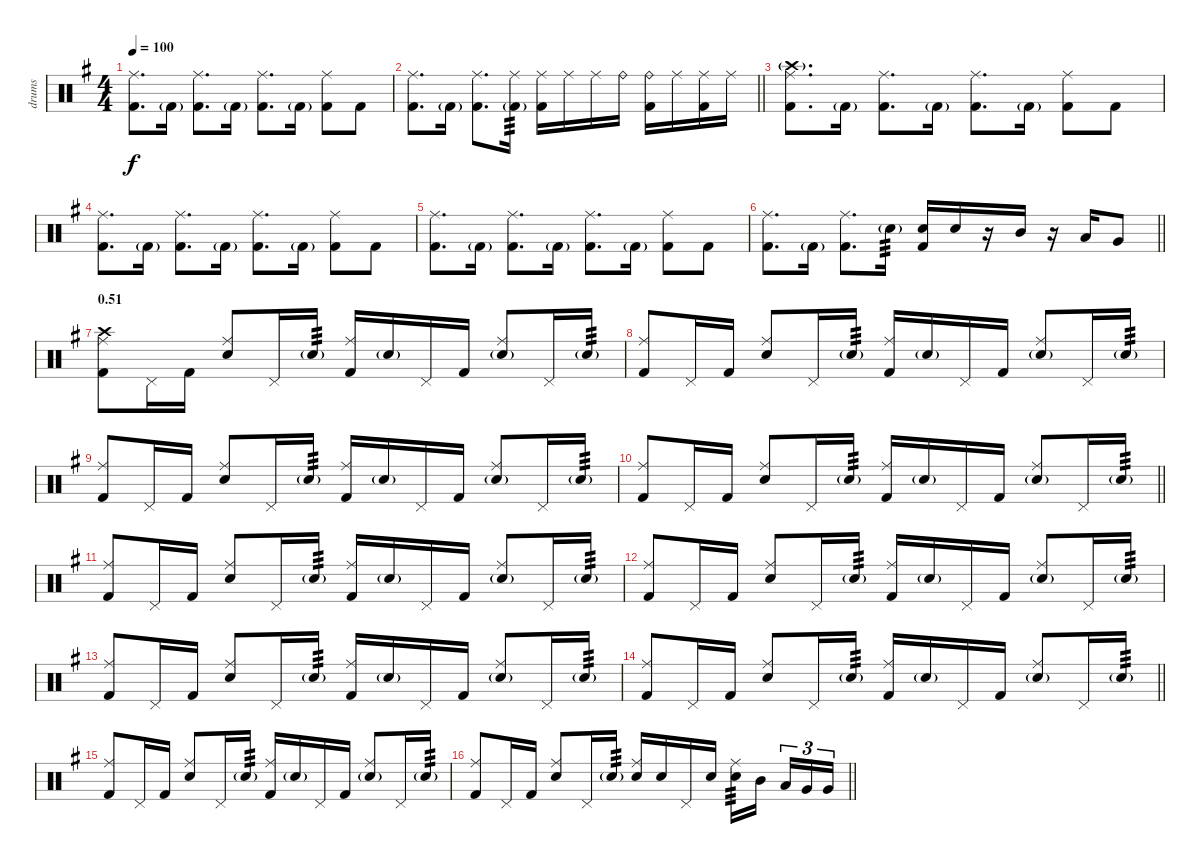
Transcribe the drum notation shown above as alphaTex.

\track ("drums" "drums") {instrument percussion}
\staff {score}
\articulation defaults
\ts (4 4)
\tempo 100
\clef neutral
\ks g
("Ride (middle)" "Kick (hit) 2").8{d dy f} "Kick (hit) 2"{g}.16 ("Ride (middle)" "Kick (hit) 2").8{d} "Kick (hit) 2"{g}.16 ("Ride (middle)" "Kick (hit) 2").8{d} "Kick (hit) 2"{g}.16 ("Ride (middle)" "Kick (hit) 2").8 "Kick (hit) 2".8 |
\barLineRight lightlight
("Ride (middle)" "Kick (hit) 2").8{d} "Kick (hit) 2"{g}.16 ("Ride (middle)" "Kick (hit) 2").8{d} ("Ride (middle)" "Kick (hit) 2"{g}).16{tp 3} ("Ride (middle)" "Kick (hit) 2").16 "Ride (middle)".16 "Ride (middle)".16 "Ride (bell)".16 ("Ride (bell)" "Kick (hit) 2").16 "Ride (middle)".16 ("Ride (middle)" "Kick (hit) 2").16 "Ride (middle)".16 |
("Ride (middle)" "Crash high (hit)"{g} "Kick (hit) 2").8{d} "Kick (hit) 2"{g}.16 ("Ride (middle)" "Kick (hit) 2").8{d} "Kick (hit) 2"{g}.16 ("Ride (middle)" "Kick (hit) 2").8{d} "Kick (hit) 2"{g}.16 ("Ride (middle)" "Kick (hit) 2").8 "Kick (hit) 2".8 |
("Ride (middle)" "Kick (hit) 2").8{d} "Kick (hit) 2"{g}.16 ("Ride (middle)" "Kick (hit) 2").8{d} "Kick (hit) 2"{g}.16 ("Ride (middle)" "Kick (hit) 2").8{d} "Kick (hit) 2"{g}.16 ("Ride (middle)" "Kick (hit) 2").8 "Kick (hit) 2".8 |
("Ride (middle)" "Kick (hit) 2").8{d} "Kick (hit) 2"{g}.16 ("Ride (middle)" "Kick (hit) 2").8{d} "Kick (hit) 2"{g}.16 ("Ride (middle)" "Kick (hit) 2").8{d} "Kick (hit) 2"{g}.16 ("Ride (middle)" "Kick (hit) 2").8 "Kick (hit) 2".8 |
\barLineRight lightlight
("Ride (middle)" "Kick (hit) 2").8{d} "Kick (hit) 2"{g}.16 ("Ride (middle)" "Kick (hit) 2").8{d} "Electric Snare (hit)"{g}.16{tp 3} ("Electric Snare (hit)" "Kick (hit) 2").16 "Electric Snare (hit)".16 r.16 "Mid Tom (hit)".16 r.16 "Low Tom (hit)".16 "Very Low Tom (hit)".8 |
\section ("" "0.51")
("Ride (middle)" "Crash high (hit)" "Kick (hit) 2").8 "Pedal Hi-Hat (hit)".16 "Kick (hit) 2".16 ("Ride (middle)" "Electric Snare (hit)").8 "Pedal Hi-Hat (hit)".16 "Electric Snare (hit)"{g}.16{tp 3} ("Ride (middle)" "Kick (hit) 2").16 "Electric Snare (hit)"{g}.16 "Pedal Hi-Hat (hit)".16 "Kick (hit) 2".16 ("Ride (middle)" "Electric Snare (hit)"{g}).8 "Pedal Hi-Hat (hit)".16 "Electric Snare (hit)"{g}.16{tp 3} |
("Ride (middle)" "Kick (hit) 2").8 "Pedal Hi-Hat (hit)".16 "Kick (hit) 2".16 ("Ride (middle)" "Electric Snare (hit)").8 "Pedal Hi-Hat (hit)".16 "Electric Snare (hit)"{g}.16{tp 3} ("Ride (middle)" "Kick (hit) 2").16 "Electric Snare (hit)"{g}.16 "Pedal Hi-Hat (hit)".16 "Kick (hit) 2".16 ("Ride (middle)" "Electric Snare (hit)"{g}).8 "Pedal Hi-Hat (hit)".16 "Electric Snare (hit)"{g}.16{tp 3} |
("Ride (middle)" "Kick (hit) 2").8 "Pedal Hi-Hat (hit)".16 "Kick (hit) 2".16 ("Ride (middle)" "Electric Snare (hit)").8 "Pedal Hi-Hat (hit)".16 "Electric Snare (hit)"{g}.16{tp 3} ("Ride (middle)" "Kick (hit) 2").16 "Electric Snare (hit)"{g}.16 "Pedal Hi-Hat (hit)".16 "Kick (hit) 2".16 ("Ride (middle)" "Electric Snare (hit)"{g}).8 "Pedal Hi-Hat (hit)".16 "Electric Snare (hit)"{g}.16{tp 3} |
\barLineRight lightlight
("Ride (middle)" "Kick (hit) 2").8 "Pedal Hi-Hat (hit)".16 "Kick (hit) 2".16 ("Ride (middle)" "Electric Snare (hit)").8 "Pedal Hi-Hat (hit)".16 "Electric Snare (hit)"{g}.16{tp 3} ("Ride (middle)" "Kick (hit) 2").16 "Electric Snare (hit)"{g}.16 "Pedal Hi-Hat (hit)".16 "Kick (hit) 2".16 ("Ride (middle)" "Electric Snare (hit)"{g}).8 "Pedal Hi-Hat (hit)".16 "Electric Snare (hit)"{g}.16{tp 3} |
("Ride (middle)" "Kick (hit) 2").8 "Pedal Hi-Hat (hit)".16 "Kick (hit) 2".16 ("Ride (middle)" "Electric Snare (hit)").8 "Pedal Hi-Hat (hit)".16 "Electric Snare (hit)"{g}.16{tp 3} ("Ride (middle)" "Kick (hit) 2").16 "Electric Snare (hit)"{g}.16 "Pedal Hi-Hat (hit)".16 "Kick (hit) 2".16 ("Ride (middle)" "Electric Snare (hit)"{g}).8 "Pedal Hi-Hat (hit)".16 "Electric Snare (hit)"{g}.16{tp 3} |
("Ride (middle)" "Kick (hit) 2").8 "Pedal Hi-Hat (hit)".16 "Kick (hit) 2".16 ("Ride (middle)" "Electric Snare (hit)").8 "Pedal Hi-Hat (hit)".16 "Electric Snare (hit)"{g}.16{tp 3} ("Ride (middle)" "Kick (hit) 2").16 "Electric Snare (hit)"{g}.16 "Pedal Hi-Hat (hit)".16 "Kick (hit) 2".16 ("Ride (middle)" "Electric Snare (hit)"{g}).8 "Pedal Hi-Hat (hit)".16 "Electric Snare (hit)"{g}.16{tp 3} |
("Ride (middle)" "Kick (hit) 2").8 "Pedal Hi-Hat (hit)".16 "Kick (hit) 2".16 ("Ride (middle)" "Electric Snare (hit)").8 "Pedal Hi-Hat (hit)".16 "Electric Snare (hit)"{g}.16{tp 3} ("Ride (middle)" "Kick (hit) 2").16 "Electric Snare (hit)"{g}.16 "Pedal Hi-Hat (hit)".16 "Kick (hit) 2".16 ("Ride (middle)" "Electric Snare (hit)"{g}).8 "Pedal Hi-Hat (hit)".16 "Electric Snare (hit)"{g}.16{tp 3} |
\barLineRight lightlight
("Ride (middle)" "Kick (hit) 2").8 "Pedal Hi-Hat (hit)".16 "Kick (hit) 2".16 ("Ride (middle)" "Electric Snare (hit)").8 "Pedal Hi-Hat (hit)".16 "Electric Snare (hit)"{g}.16{tp 3} ("Ride (middle)" "Kick (hit) 2").16 "Electric Snare (hit)"{g}.16 "Pedal Hi-Hat (hit)".16 "Kick (hit) 2".16 ("Ride (middle)" "Electric Snare (hit)"{g}).8 "Pedal Hi-Hat (hit)".16 "Electric Snare (hit)"{g}.16{tp 3} |
("Ride (middle)" "Kick (hit) 2").8 "Pedal Hi-Hat (hit)".16 "Kick (hit) 2".16 ("Ride (middle)" "Electric Snare (hit)").8 "Pedal Hi-Hat (hit)".16 "Electric Snare (hit)"{g}.16{tp 3} ("Ride (middle)" "Kick (hit) 2").16 "Electric Snare (hit)"{g}.16 "Pedal Hi-Hat (hit)".16 "Kick (hit) 2".16 ("Ride (middle)" "Electric Snare (hit)"{g}).8 "Pedal Hi-Hat (hit)".16 "Electric Snare (hit)"{g}.16{tp 3} |
\barLineRight lightlight
("Ride (middle)" "Kick (hit) 2").8 "Pedal Hi-Hat (hit)".16 "Kick (hit) 2".16 ("Ride (middle)" "Electric Snare (hit)").8 "Pedal Hi-Hat (hit)".16 "Electric Snare (hit)"{g}.16{tp 3} ("Ride (middle)" "Electric Snare (hit)").16 "Electric Snare (hit)".16 "Pedal Hi-Hat (hit)".16 "Electric Snare (hit)".16 ("Ride (middle)" "Electric Snare (hit)").16{tp 3} "Mid Tom (hit)".16{beam splitsecondary} "Low Tom (hit)".16{tu (3 2)} "Very Low Tom (hit)".16{tu (3 2)} "Very Low Tom (hit)".16{tu (3 2)}
